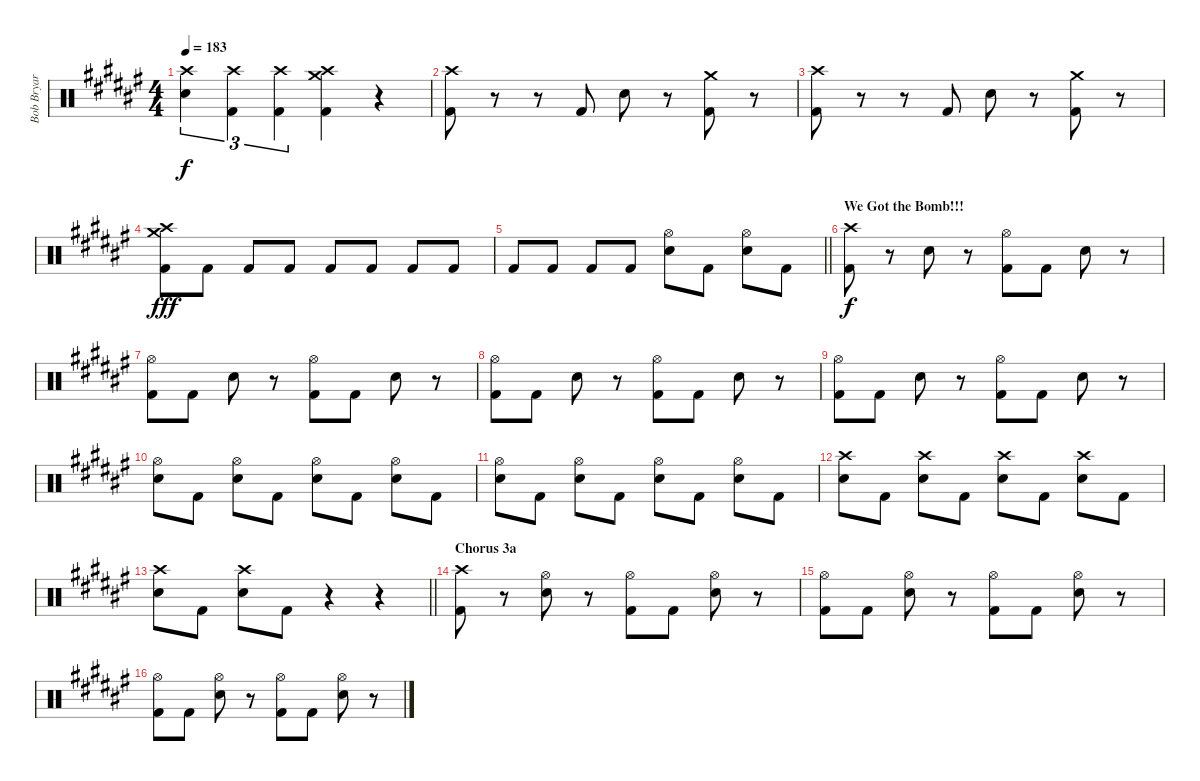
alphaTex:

\track ("Bob Bryar" "Bob Bryar") {instrument percussion}
\staff {score}
\articulation defaults
\ts (4 4)
\tempo 183
\clef neutral
\ks d#minor
("Crash high (hit)" "Electric Snare (hit)").4{tu (3 2) dy f} ("Crash high (hit)" "Kick (hit) 2").4{tu (3 2)} ("Crash high (hit)" "Kick (hit) 2").4{tu (3 2)} ("Crash high (hit)" "Crash medium (hit)" "Kick (hit) 2").4 r.4 |
("Crash high (hit)" "Kick (hit) 2").8 r.8 r.8 "Kick (hit) 2".8 "Electric Snare (hit)".8 r.8 ("Crash medium (hit)" "Kick (hit) 2").8 r.8 |
("Crash high (hit)" "Kick (hit) 2").8 r.8 r.8 "Kick (hit) 2".8 "Electric Snare (hit)".8 r.8 ("Crash medium (hit)" "Kick (hit) 2").8 r.8 |
("Crash high (hit)" "Crash medium (hit)" "Kick (hit) 2").8{dy fff} "Kick (hit) 2".8 "Kick (hit) 2".8 "Kick (hit) 2".8 "Kick (hit) 2".8 "Kick (hit) 2".8 "Kick (hit) 2".8 "Kick (hit) 2".8 |
\barLineRight lightlight "Kick (hit) 2".8 "Kick (hit) 2".8 "Kick (hit) 2".8 "Kick (hit) 2".8
("Hi-Hat (open)" "Electric Snare (hit)").8 "Kick (hit) 2".8 ("Hi-Hat (open)" "Electric Snare (hit)").8 "Kick (hit) 2".8 |
\section ("" "We Got the Bomb!!!")
("Crash high (hit)" "Kick (hit) 2").8{dy f} r.8 "Electric Snare (hit)".8 r.8 ("Hi-Hat (open)" "Kick (hit) 2").8 "Kick (hit) 2".8 "Electric Snare (hit)".8 r.8 |
("Hi-Hat (open)" "Kick (hit) 2").8 "Kick (hit) 2".8 "Electric Snare (hit)".8 r.8 ("Hi-Hat (open)" "Kick (hit) 2").8 "Kick (hit) 2".8 "Electric Snare (hit)".8 r.8 |
("Hi-Hat (open)" "Kick (hit) 2").8 "Kick (hit) 2".8 "Electric Snare (hit)".8 r.8 ("Hi-Hat (open)" "Kick (hit) 2").8 "Kick (hit) 2".8 "Electric Snare (hit)".8 r.8 |
("Hi-Hat (open)" "Kick (hit) 2").8 "Kick (hit) 2".8 "Electric Snare (hit)".8 r.8 ("Hi-Hat (open)" "Kick (hit) 2").8 "Kick (hit) 2".8 "Electric Snare (hit)".8 r.8 |
("Hi-Hat (open)" "Electric Snare (hit)").8 "Kick (hit) 2".8 ("Hi-Hat (open)" "Electric Snare (hit)").8 "Kick (hit) 2".8 ("Hi-Hat (open)" "Electric Snare (hit)").8 "Kick (hit) 2".8 ("Hi-Hat (open)" "Electric Snare (hit)").8 "Kick (hit) 2".8 |
("Hi-Hat (open)" "Electric Snare (hit)").8 "Kick (hit) 2".8 ("Hi-Hat (open)" "Electric Snare (hit)").8 "Kick (hit) 2".8 ("Hi-Hat (open)" "Electric Snare (hit)").8 "Kick (hit) 2".8 ("Hi-Hat (open)" "Electric Snare (hit)").8 "Kick (hit) 2".8 |
("Crash high (hit)" "Electric Snare (hit)").8 "Kick (hit) 2".8 ("Crash high (hit)" "Electric Snare (hit)").8 "Kick (hit) 2".8 ("Crash high (hit)" "Electric Snare (hit)").8 "Kick (hit) 2".8 ("Crash high (hit)" "Electric Snare (hit)").8 "Kick (hit) 2".8 |
\barLineRight lightlight
("Crash high (hit)" "Electric Snare (hit)").8 "Kick (hit) 2".8 ("Crash high (hit)" "Electric Snare (hit)").8 "Kick (hit) 2".8 r.4 r.4 |
\section ("" "Chorus 3a")
("Crash high (hit)" "Kick (hit) 2").8 r.8 ("Hi-Hat (open)" "Electric Snare (hit)").8 r.8 ("Hi-Hat (open)" "Kick (hit) 2").8 "Kick (hit) 2".8 ("Hi-Hat (open)" "Electric Snare (hit)").8 r.8 |
("Hi-Hat (open)" "Kick (hit) 2").8 "Kick (hit) 2".8 ("Hi-Hat (open)" "Electric Snare (hit)").8 r.8 ("Hi-Hat (open)" "Kick (hit) 2").8 "Kick (hit) 2".8 ("Hi-Hat (open)" "Electric Snare (hit)").8 r.8 |
("Hi-Hat (open)" "Kick (hit) 2").8 "Kick (hit) 2".8 ("Hi-Hat (open)" "Electric Snare (hit)").8 r.8 ("Hi-Hat (open)" "Kick (hit) 2").8 "Kick (hit) 2".8 ("Hi-Hat (open)" "Electric Snare (hit)").8 r.8
